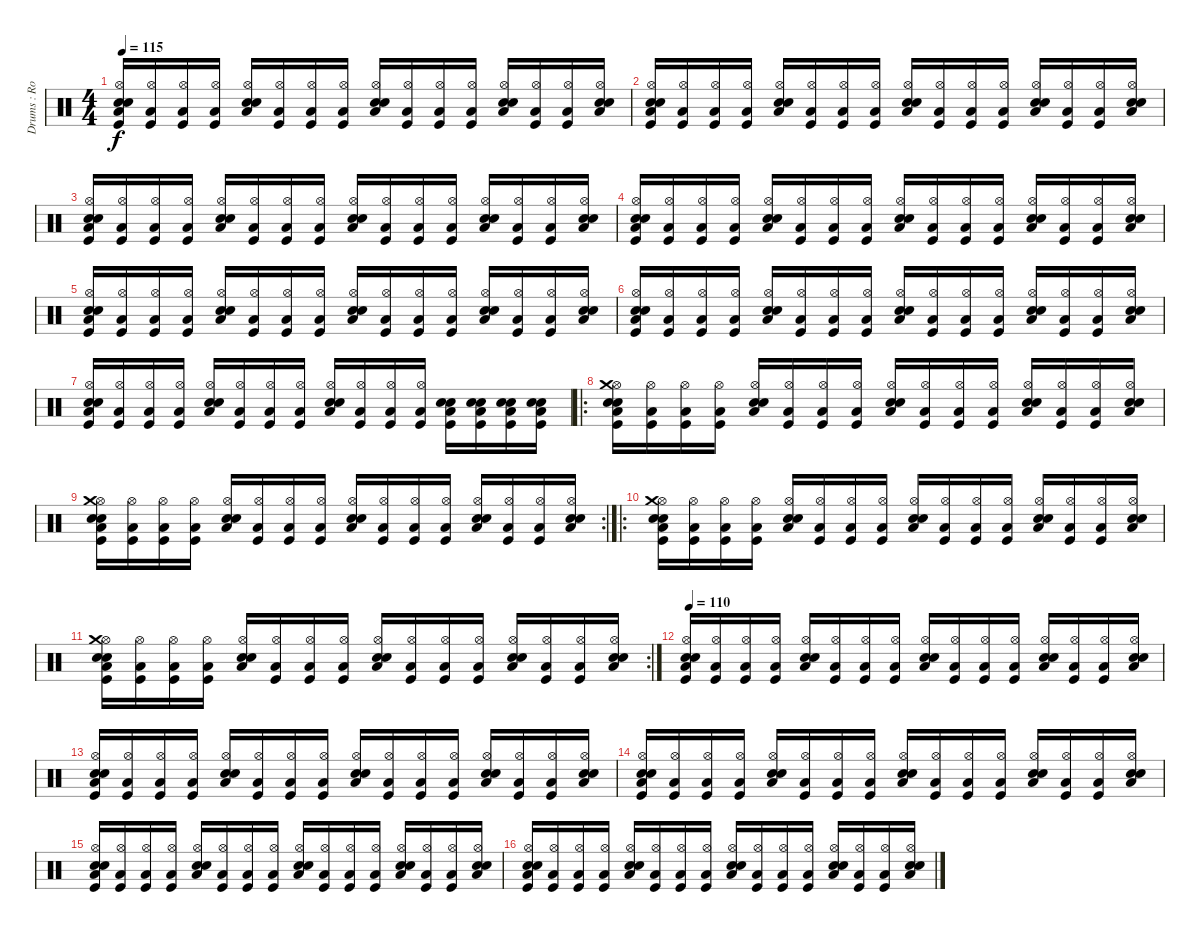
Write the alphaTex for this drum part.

\track ("Drums : Rob Kurth" "Drums : Ro") {instrument percussion}
\staff {score}
\articulation defaults
\ts (4 4)
\tempo 115
\clef neutral
\ks c
("Low Floor Tom (hit)" "Hi-Hat (open)" "Electric Snare (hit)" "Kick (hit)" "Snare (hit) 2").16{dy f} ("Low Floor Tom (hit)" "Hi-Hat (open)" "Kick (hit)").16 ("Low Floor Tom (hit)" "Hi-Hat (open)" "Kick (hit)").16 ("Low Floor Tom (hit)" "Hi-Hat (open)" "Kick (hit)").16 ("Low Floor Tom (hit)" "Hi-Hat (open)" "Electric Snare (hit)" "Snare (hit) 2").16 ("Low Floor Tom (hit)" "Hi-Hat (open)" "Kick (hit)").16 ("Low Floor Tom (hit)" "Hi-Hat (open)" "Kick (hit)").16 ("Low Floor Tom (hit)" "Hi-Hat (open)" "Kick (hit)").16 ("Low Floor Tom (hit)" "Hi-Hat (open)" "Electric Snare (hit)" "Snare (hit) 2").16 ("Low Floor Tom (hit)" "Hi-Hat (open)" "Kick (hit)").16 ("Low Floor Tom (hit)" "Hi-Hat (open)" "Kick (hit)").16 ("Low Floor Tom (hit)" "Hi-Hat (open)" "Kick (hit)").16 ("Low Floor Tom (hit)" "Hi-Hat (open)" "Electric Snare (hit)" "Snare (hit) 2").16 ("Low Floor Tom (hit)" "Hi-Hat (open)" "Kick (hit)").16 ("Low Floor Tom (hit)" "Hi-Hat (open)" "Kick (hit)").16 ("Low Floor Tom (hit)" "Hi-Hat (open)" "Electric Snare (hit)" "Snare (hit) 2").16 |
("Low Floor Tom (hit)" "Hi-Hat (open)" "Electric Snare (hit)" "Kick (hit)" "Snare (hit) 2").16 ("Low Floor Tom (hit)" "Hi-Hat (open)" "Kick (hit)").16 ("Low Floor Tom (hit)" "Hi-Hat (open)" "Kick (hit)").16 ("Low Floor Tom (hit)" "Hi-Hat (open)" "Kick (hit)").16 ("Low Floor Tom (hit)" "Hi-Hat (open)" "Electric Snare (hit)" "Snare (hit) 2").16 ("Low Floor Tom (hit)" "Hi-Hat (open)" "Kick (hit)").16 ("Low Floor Tom (hit)" "Hi-Hat (open)" "Kick (hit)").16 ("Low Floor Tom (hit)" "Hi-Hat (open)" "Kick (hit)").16 ("Low Floor Tom (hit)" "Hi-Hat (open)" "Electric Snare (hit)" "Snare (hit) 2").16 ("Low Floor Tom (hit)" "Hi-Hat (open)" "Kick (hit)").16 ("Low Floor Tom (hit)" "Hi-Hat (open)" "Kick (hit)").16 ("Low Floor Tom (hit)" "Hi-Hat (open)" "Kick (hit)").16 ("Low Floor Tom (hit)" "Hi-Hat (open)" "Electric Snare (hit)" "Snare (hit) 2").16 ("Low Floor Tom (hit)" "Hi-Hat (open)" "Kick (hit)").16 ("Low Floor Tom (hit)" "Hi-Hat (open)" "Kick (hit)").16 ("Low Floor Tom (hit)" "Hi-Hat (open)" "Electric Snare (hit)" "Snare (hit) 2").16 |
("Low Floor Tom (hit)" "Hi-Hat (open)" "Electric Snare (hit)" "Kick (hit)" "Snare (hit) 2").16 ("Low Floor Tom (hit)" "Hi-Hat (open)" "Kick (hit)").16 ("Low Floor Tom (hit)" "Hi-Hat (open)" "Kick (hit)").16 ("Low Floor Tom (hit)" "Hi-Hat (open)" "Kick (hit)").16 ("Low Floor Tom (hit)" "Hi-Hat (open)" "Electric Snare (hit)" "Snare (hit) 2").16 ("Low Floor Tom (hit)" "Hi-Hat (open)" "Kick (hit)").16 ("Low Floor Tom (hit)" "Hi-Hat (open)" "Kick (hit)").16 ("Low Floor Tom (hit)" "Hi-Hat (open)" "Kick (hit)").16 ("Low Floor Tom (hit)" "Hi-Hat (open)" "Electric Snare (hit)" "Snare (hit) 2").16 ("Low Floor Tom (hit)" "Hi-Hat (open)" "Kick (hit)").16 ("Low Floor Tom (hit)" "Hi-Hat (open)" "Kick (hit)").16 ("Low Floor Tom (hit)" "Hi-Hat (open)" "Kick (hit)").16 ("Low Floor Tom (hit)" "Hi-Hat (open)" "Electric Snare (hit)" "Snare (hit) 2").16 ("Low Floor Tom (hit)" "Hi-Hat (open)" "Kick (hit)").16 ("Low Floor Tom (hit)" "Hi-Hat (open)" "Kick (hit)").16 ("Low Floor Tom (hit)" "Hi-Hat (open)" "Electric Snare (hit)" "Snare (hit) 2").16 |
("Low Floor Tom (hit)" "Hi-Hat (open)" "Electric Snare (hit)" "Kick (hit)" "Snare (hit) 2").16 ("Low Floor Tom (hit)" "Hi-Hat (open)" "Kick (hit)").16 ("Low Floor Tom (hit)" "Hi-Hat (open)" "Kick (hit)").16 ("Low Floor Tom (hit)" "Hi-Hat (open)" "Kick (hit)").16 ("Low Floor Tom (hit)" "Hi-Hat (open)" "Electric Snare (hit)" "Snare (hit) 2").16 ("Low Floor Tom (hit)" "Hi-Hat (open)" "Kick (hit)").16 ("Low Floor Tom (hit)" "Hi-Hat (open)" "Kick (hit)").16 ("Low Floor Tom (hit)" "Hi-Hat (open)" "Kick (hit)").16 ("Low Floor Tom (hit)" "Hi-Hat (open)" "Electric Snare (hit)" "Snare (hit) 2").16 ("Low Floor Tom (hit)" "Hi-Hat (open)" "Kick (hit)").16 ("Low Floor Tom (hit)" "Hi-Hat (open)" "Kick (hit)").16 ("Low Floor Tom (hit)" "Hi-Hat (open)" "Kick (hit)").16 ("Low Floor Tom (hit)" "Hi-Hat (open)" "Electric Snare (hit)" "Snare (hit) 2").16 ("Low Floor Tom (hit)" "Hi-Hat (open)" "Kick (hit)").16 ("Low Floor Tom (hit)" "Hi-Hat (open)" "Kick (hit)").16 ("Low Floor Tom (hit)" "Hi-Hat (open)" "Electric Snare (hit)" "Snare (hit) 2").16 |
("Low Floor Tom (hit)" "Hi-Hat (open)" "Electric Snare (hit)" "Kick (hit)" "Snare (hit) 2").16 ("Low Floor Tom (hit)" "Hi-Hat (open)" "Kick (hit)").16 ("Low Floor Tom (hit)" "Hi-Hat (open)" "Kick (hit)").16 ("Low Floor Tom (hit)" "Hi-Hat (open)" "Kick (hit)").16 ("Low Floor Tom (hit)" "Hi-Hat (open)" "Electric Snare (hit)" "Snare (hit) 2").16 ("Low Floor Tom (hit)" "Hi-Hat (open)" "Kick (hit)").16 ("Low Floor Tom (hit)" "Hi-Hat (open)" "Kick (hit)").16 ("Low Floor Tom (hit)" "Hi-Hat (open)" "Kick (hit)").16 ("Low Floor Tom (hit)" "Hi-Hat (open)" "Electric Snare (hit)" "Snare (hit) 2").16 ("Low Floor Tom (hit)" "Hi-Hat (open)" "Kick (hit)").16 ("Low Floor Tom (hit)" "Hi-Hat (open)" "Kick (hit)").16 ("Low Floor Tom (hit)" "Hi-Hat (open)" "Kick (hit)").16 ("Low Floor Tom (hit)" "Hi-Hat (open)" "Electric Snare (hit)" "Snare (hit) 2").16 ("Low Floor Tom (hit)" "Hi-Hat (open)" "Kick (hit)").16 ("Low Floor Tom (hit)" "Hi-Hat (open)" "Kick (hit)").16 ("Low Floor Tom (hit)" "Hi-Hat (open)" "Electric Snare (hit)" "Snare (hit) 2").16 |
("Low Floor Tom (hit)" "Hi-Hat (open)" "Electric Snare (hit)" "Kick (hit)" "Snare (hit) 2").16 ("Low Floor Tom (hit)" "Hi-Hat (open)" "Kick (hit)").16 ("Low Floor Tom (hit)" "Hi-Hat (open)" "Kick (hit)").16 ("Low Floor Tom (hit)" "Hi-Hat (open)" "Kick (hit)").16 ("Low Floor Tom (hit)" "Hi-Hat (open)" "Electric Snare (hit)" "Snare (hit) 2").16 ("Low Floor Tom (hit)" "Hi-Hat (open)" "Kick (hit)").16 ("Low Floor Tom (hit)" "Hi-Hat (open)" "Kick (hit)").16 ("Low Floor Tom (hit)" "Hi-Hat (open)" "Kick (hit)").16 ("Low Floor Tom (hit)" "Hi-Hat (open)" "Electric Snare (hit)" "Snare (hit) 2").16 ("Low Floor Tom (hit)" "Hi-Hat (open)" "Kick (hit)").16 ("Low Floor Tom (hit)" "Hi-Hat (open)" "Kick (hit)").16 ("Low Floor Tom (hit)" "Hi-Hat (open)" "Kick (hit)").16 ("Low Floor Tom (hit)" "Hi-Hat (open)" "Electric Snare (hit)" "Snare (hit) 2").16 ("Low Floor Tom (hit)" "Hi-Hat (open)" "Kick (hit)").16 ("Low Floor Tom (hit)" "Hi-Hat (open)" "Kick (hit)").16 ("Low Floor Tom (hit)" "Hi-Hat (open)" "Electric Snare (hit)" "Snare (hit) 2").16 |
("Low Floor Tom (hit)" "Hi-Hat (open)" "Electric Snare (hit)" "Kick (hit)" "Snare (hit) 2").16 ("Low Floor Tom (hit)" "Hi-Hat (open)" "Kick (hit)").16 ("Low Floor Tom (hit)" "Hi-Hat (open)" "Kick (hit)").16 ("Low Floor Tom (hit)" "Hi-Hat (open)" "Kick (hit)").16 ("Low Floor Tom (hit)" "Hi-Hat (open)" "Electric Snare (hit)" "Snare (hit) 2").16 ("Low Floor Tom (hit)" "Hi-Hat (open)" "Kick (hit)").16 ("Low Floor Tom (hit)" "Hi-Hat (open)" "Kick (hit)").16 ("Low Floor Tom (hit)" "Hi-Hat (open)" "Kick (hit)").16 ("Low Floor Tom (hit)" "Hi-Hat (open)" "Electric Snare (hit)" "Snare (hit) 2").16 ("Low Floor Tom (hit)" "Hi-Hat (open)" "Kick (hit)").16 ("Low Floor Tom (hit)" "Hi-Hat (open)" "Kick (hit)").16 ("Low Floor Tom (hit)" "Hi-Hat (open)" "Kick (hit)").16 ("Low Floor Tom (hit)" "Kick (hit)" "Electric Snare (hit)" "Snare (hit) 2").16 ("Low Floor Tom (hit)" "Kick (hit)" "Electric Snare (hit)" "Snare (hit) 2").16 ("Low Floor Tom (hit)" "Kick (hit)" "Electric Snare (hit)" "Snare (hit) 2").16 ("Low Floor Tom (hit)" "Kick (hit)" "Electric Snare (hit)" "Snare (hit) 2").16 |
\ro
("Low Floor Tom (hit)" "Hi-Hat (open)" "Electric Snare (hit)" "Kick (hit)" "Snare (hit) 2" "Crash medium (hit)").16 ("Low Floor Tom (hit)" "Hi-Hat (open)" "Kick (hit)").16 ("Low Floor Tom (hit)" "Hi-Hat (open)" "Kick (hit)").16 ("Low Floor Tom (hit)" "Hi-Hat (open)" "Kick (hit)").16 ("Low Floor Tom (hit)" "Hi-Hat (open)" "Electric Snare (hit)" "Snare (hit) 2").16 ("Low Floor Tom (hit)" "Hi-Hat (open)" "Kick (hit)").16 ("Low Floor Tom (hit)" "Hi-Hat (open)" "Kick (hit)").16 ("Low Floor Tom (hit)" "Hi-Hat (open)" "Kick (hit)").16 ("Low Floor Tom (hit)" "Hi-Hat (open)" "Electric Snare (hit)" "Snare (hit) 2").16 ("Low Floor Tom (hit)" "Hi-Hat (open)" "Kick (hit)").16 ("Low Floor Tom (hit)" "Hi-Hat (open)" "Kick (hit)").16 ("Low Floor Tom (hit)" "Hi-Hat (open)" "Kick (hit)").16 ("Low Floor Tom (hit)" "Hi-Hat (open)" "Electric Snare (hit)" "Snare (hit) 2").16 ("Low Floor Tom (hit)" "Hi-Hat (open)" "Kick (hit)").16 ("Low Floor Tom (hit)" "Hi-Hat (open)" "Kick (hit)").16 ("Low Floor Tom (hit)" "Hi-Hat (open)" "Electric Snare (hit)" "Snare (hit) 2").16 |
\rc 2
("Low Floor Tom (hit)" "Hi-Hat (open)" "Electric Snare (hit)" "Kick (hit)" "Snare (hit) 2" "Crash medium (hit)").16 ("Low Floor Tom (hit)" "Hi-Hat (open)" "Kick (hit)").16 ("Low Floor Tom (hit)" "Hi-Hat (open)" "Kick (hit)").16 ("Low Floor Tom (hit)" "Hi-Hat (open)" "Kick (hit)").16 ("Low Floor Tom (hit)" "Hi-Hat (open)" "Electric Snare (hit)" "Snare (hit) 2").16 ("Low Floor Tom (hit)" "Hi-Hat (open)" "Kick (hit)").16 ("Low Floor Tom (hit)" "Hi-Hat (open)" "Kick (hit)").16 ("Low Floor Tom (hit)" "Hi-Hat (open)" "Kick (hit)").16 ("Low Floor Tom (hit)" "Hi-Hat (open)" "Electric Snare (hit)" "Snare (hit) 2").16 ("Low Floor Tom (hit)" "Hi-Hat (open)" "Kick (hit)").16 ("Low Floor Tom (hit)" "Hi-Hat (open)" "Kick (hit)").16 ("Low Floor Tom (hit)" "Hi-Hat (open)" "Kick (hit)").16 ("Low Floor Tom (hit)" "Hi-Hat (open)" "Electric Snare (hit)" "Snare (hit) 2").16 ("Low Floor Tom (hit)" "Hi-Hat (open)" "Kick (hit)").16 ("Low Floor Tom (hit)" "Hi-Hat (open)" "Kick (hit)").16 ("Low Floor Tom (hit)" "Hi-Hat (open)" "Electric Snare (hit)" "Snare (hit) 2").16 |
\ro
("Low Floor Tom (hit)" "Hi-Hat (open)" "Electric Snare (hit)" "Kick (hit)" "Snare (hit) 2" "Crash medium (hit)").16 ("Low Floor Tom (hit)" "Hi-Hat (open)" "Kick (hit)").16 ("Low Floor Tom (hit)" "Hi-Hat (open)" "Kick (hit)").16 ("Low Floor Tom (hit)" "Hi-Hat (open)" "Kick (hit)").16 ("Low Floor Tom (hit)" "Hi-Hat (open)" "Electric Snare (hit)" "Snare (hit) 2").16 ("Low Floor Tom (hit)" "Hi-Hat (open)" "Kick (hit)").16 ("Low Floor Tom (hit)" "Hi-Hat (open)" "Kick (hit)").16 ("Low Floor Tom (hit)" "Hi-Hat (open)" "Kick (hit)").16 ("Low Floor Tom (hit)" "Hi-Hat (open)" "Electric Snare (hit)" "Snare (hit) 2").16 ("Low Floor Tom (hit)" "Hi-Hat (open)" "Kick (hit)").16 ("Low Floor Tom (hit)" "Hi-Hat (open)" "Kick (hit)").16 ("Low Floor Tom (hit)" "Hi-Hat (open)" "Kick (hit)").16 ("Low Floor Tom (hit)" "Hi-Hat (open)" "Electric Snare (hit)" "Snare (hit) 2").16 ("Low Floor Tom (hit)" "Hi-Hat (open)" "Kick (hit)").16 ("Low Floor Tom (hit)" "Hi-Hat (open)" "Kick (hit)").16 ("Low Floor Tom (hit)" "Hi-Hat (open)" "Electric Snare (hit)" "Snare (hit) 2").16 |
\rc 2
("Low Floor Tom (hit)" "Hi-Hat (open)" "Electric Snare (hit)" "Kick (hit)" "Snare (hit) 2" "Crash medium (hit)").16 ("Low Floor Tom (hit)" "Hi-Hat (open)" "Kick (hit)").16 ("Low Floor Tom (hit)" "Hi-Hat (open)" "Kick (hit)").16 ("Low Floor Tom (hit)" "Hi-Hat (open)" "Kick (hit)").16 ("Low Floor Tom (hit)" "Hi-Hat (open)" "Electric Snare (hit)" "Snare (hit) 2").16 ("Low Floor Tom (hit)" "Hi-Hat (open)" "Kick (hit)").16 ("Low Floor Tom (hit)" "Hi-Hat (open)" "Kick (hit)").16 ("Low Floor Tom (hit)" "Hi-Hat (open)" "Kick (hit)").16 ("Low Floor Tom (hit)" "Hi-Hat (open)" "Electric Snare (hit)" "Snare (hit) 2").16 ("Low Floor Tom (hit)" "Hi-Hat (open)" "Kick (hit)").16 ("Low Floor Tom (hit)" "Hi-Hat (open)" "Kick (hit)").16 ("Low Floor Tom (hit)" "Hi-Hat (open)" "Kick (hit)").16 ("Low Floor Tom (hit)" "Hi-Hat (open)" "Electric Snare (hit)" "Snare (hit) 2").16 ("Low Floor Tom (hit)" "Hi-Hat (open)" "Kick (hit)").16 ("Low Floor Tom (hit)" "Hi-Hat (open)" "Kick (hit)").16 ("Low Floor Tom (hit)" "Hi-Hat (open)" "Electric Snare (hit)" "Snare (hit) 2").16 |
\tempo 110
("Low Floor Tom (hit)" "Hi-Hat (open)" "Electric Snare (hit)" "Kick (hit)" "Snare (hit) 2").16 ("Low Floor Tom (hit)" "Hi-Hat (open)" "Kick (hit)").16 ("Low Floor Tom (hit)" "Hi-Hat (open)" "Kick (hit)").16 ("Low Floor Tom (hit)" "Hi-Hat (open)" "Kick (hit)").16 ("Low Floor Tom (hit)" "Hi-Hat (open)" "Electric Snare (hit)" "Snare (hit) 2").16 ("Low Floor Tom (hit)" "Hi-Hat (open)" "Kick (hit)").16 ("Low Floor Tom (hit)" "Hi-Hat (open)" "Kick (hit)").16 ("Low Floor Tom (hit)" "Hi-Hat (open)" "Kick (hit)").16 ("Low Floor Tom (hit)" "Hi-Hat (open)" "Electric Snare (hit)" "Snare (hit) 2").16 ("Low Floor Tom (hit)" "Hi-Hat (open)" "Kick (hit)").16 ("Low Floor Tom (hit)" "Hi-Hat (open)" "Kick (hit)").16 ("Low Floor Tom (hit)" "Hi-Hat (open)" "Kick (hit)").16 ("Low Floor Tom (hit)" "Hi-Hat (open)" "Electric Snare (hit)" "Snare (hit) 2").16 ("Low Floor Tom (hit)" "Hi-Hat (open)" "Kick (hit)").16 ("Low Floor Tom (hit)" "Hi-Hat (open)" "Kick (hit)").16 ("Low Floor Tom (hit)" "Hi-Hat (open)" "Electric Snare (hit)" "Snare (hit) 2").16 |
("Low Floor Tom (hit)" "Hi-Hat (open)" "Electric Snare (hit)" "Kick (hit)" "Snare (hit) 2").16 ("Low Floor Tom (hit)" "Hi-Hat (open)" "Kick (hit)").16 ("Low Floor Tom (hit)" "Hi-Hat (open)" "Kick (hit)").16 ("Low Floor Tom (hit)" "Hi-Hat (open)" "Kick (hit)").16 ("Low Floor Tom (hit)" "Hi-Hat (open)" "Electric Snare (hit)" "Snare (hit) 2").16 ("Low Floor Tom (hit)" "Hi-Hat (open)" "Kick (hit)").16 ("Low Floor Tom (hit)" "Hi-Hat (open)" "Kick (hit)").16 ("Low Floor Tom (hit)" "Hi-Hat (open)" "Kick (hit)").16 ("Low Floor Tom (hit)" "Hi-Hat (open)" "Electric Snare (hit)" "Snare (hit) 2").16 ("Low Floor Tom (hit)" "Hi-Hat (open)" "Kick (hit)").16 ("Low Floor Tom (hit)" "Hi-Hat (open)" "Kick (hit)").16 ("Low Floor Tom (hit)" "Hi-Hat (open)" "Kick (hit)").16 ("Low Floor Tom (hit)" "Hi-Hat (open)" "Electric Snare (hit)" "Snare (hit) 2").16 ("Low Floor Tom (hit)" "Hi-Hat (open)" "Kick (hit)").16 ("Low Floor Tom (hit)" "Hi-Hat (open)" "Kick (hit)").16 ("Low Floor Tom (hit)" "Hi-Hat (open)" "Electric Snare (hit)" "Snare (hit) 2").16 |
("Low Floor Tom (hit)" "Hi-Hat (open)" "Electric Snare (hit)" "Kick (hit)" "Snare (hit) 2").16 ("Low Floor Tom (hit)" "Hi-Hat (open)" "Kick (hit)").16 ("Low Floor Tom (hit)" "Hi-Hat (open)" "Kick (hit)").16 ("Low Floor Tom (hit)" "Hi-Hat (open)" "Kick (hit)").16 ("Low Floor Tom (hit)" "Hi-Hat (open)" "Electric Snare (hit)" "Snare (hit) 2").16 ("Low Floor Tom (hit)" "Hi-Hat (open)" "Kick (hit)").16 ("Low Floor Tom (hit)" "Hi-Hat (open)" "Kick (hit)").16 ("Low Floor Tom (hit)" "Hi-Hat (open)" "Kick (hit)").16 ("Low Floor Tom (hit)" "Hi-Hat (open)" "Electric Snare (hit)" "Snare (hit) 2").16 ("Low Floor Tom (hit)" "Hi-Hat (open)" "Kick (hit)").16 ("Low Floor Tom (hit)" "Hi-Hat (open)" "Kick (hit)").16 ("Low Floor Tom (hit)" "Hi-Hat (open)" "Kick (hit)").16 ("Low Floor Tom (hit)" "Hi-Hat (open)" "Electric Snare (hit)" "Snare (hit) 2").16 ("Low Floor Tom (hit)" "Hi-Hat (open)" "Kick (hit)").16 ("Low Floor Tom (hit)" "Hi-Hat (open)" "Kick (hit)").16 ("Low Floor Tom (hit)" "Hi-Hat (open)" "Electric Snare (hit)" "Snare (hit) 2").16 |
("Low Floor Tom (hit)" "Hi-Hat (open)" "Electric Snare (hit)" "Kick (hit)" "Snare (hit) 2").16 ("Low Floor Tom (hit)" "Hi-Hat (open)" "Kick (hit)").16 ("Low Floor Tom (hit)" "Hi-Hat (open)" "Kick (hit)").16 ("Low Floor Tom (hit)" "Hi-Hat (open)" "Kick (hit)").16 ("Low Floor Tom (hit)" "Hi-Hat (open)" "Electric Snare (hit)" "Snare (hit) 2").16 ("Low Floor Tom (hit)" "Hi-Hat (open)" "Kick (hit)").16 ("Low Floor Tom (hit)" "Hi-Hat (open)" "Kick (hit)").16 ("Low Floor Tom (hit)" "Hi-Hat (open)" "Kick (hit)").16 ("Low Floor Tom (hit)" "Hi-Hat (open)" "Electric Snare (hit)" "Snare (hit) 2").16 ("Low Floor Tom (hit)" "Hi-Hat (open)" "Kick (hit)").16 ("Low Floor Tom (hit)" "Hi-Hat (open)" "Kick (hit)").16 ("Low Floor Tom (hit)" "Hi-Hat (open)" "Kick (hit)").16 ("Low Floor Tom (hit)" "Hi-Hat (open)" "Electric Snare (hit)" "Snare (hit) 2").16 ("Low Floor Tom (hit)" "Hi-Hat (open)" "Kick (hit)").16 ("Low Floor Tom (hit)" "Hi-Hat (open)" "Kick (hit)").16 ("Low Floor Tom (hit)" "Hi-Hat (open)" "Electric Snare (hit)" "Snare (hit) 2").16 |
("Low Floor Tom (hit)" "Hi-Hat (open)" "Electric Snare (hit)" "Kick (hit)" "Snare (hit) 2").16 ("Low Floor Tom (hit)" "Hi-Hat (open)" "Kick (hit)").16 ("Low Floor Tom (hit)" "Hi-Hat (open)" "Kick (hit)").16 ("Low Floor Tom (hit)" "Hi-Hat (open)" "Kick (hit)").16 ("Low Floor Tom (hit)" "Hi-Hat (open)" "Electric Snare (hit)" "Snare (hit) 2").16 ("Low Floor Tom (hit)" "Hi-Hat (open)" "Kick (hit)").16 ("Low Floor Tom (hit)" "Hi-Hat (open)" "Kick (hit)").16 ("Low Floor Tom (hit)" "Hi-Hat (open)" "Kick (hit)").16 ("Low Floor Tom (hit)" "Hi-Hat (open)" "Electric Snare (hit)" "Snare (hit) 2").16 ("Low Floor Tom (hit)" "Hi-Hat (open)" "Kick (hit)").16 ("Low Floor Tom (hit)" "Hi-Hat (open)" "Kick (hit)").16 ("Low Floor Tom (hit)" "Hi-Hat (open)" "Kick (hit)").16 ("Low Floor Tom (hit)" "Hi-Hat (open)" "Electric Snare (hit)" "Snare (hit) 2").16 ("Low Floor Tom (hit)" "Hi-Hat (open)" "Kick (hit)").16 ("Low Floor Tom (hit)" "Hi-Hat (open)" "Kick (hit)").16 ("Low Floor Tom (hit)" "Hi-Hat (open)" "Electric Snare (hit)" "Snare (hit) 2").16
